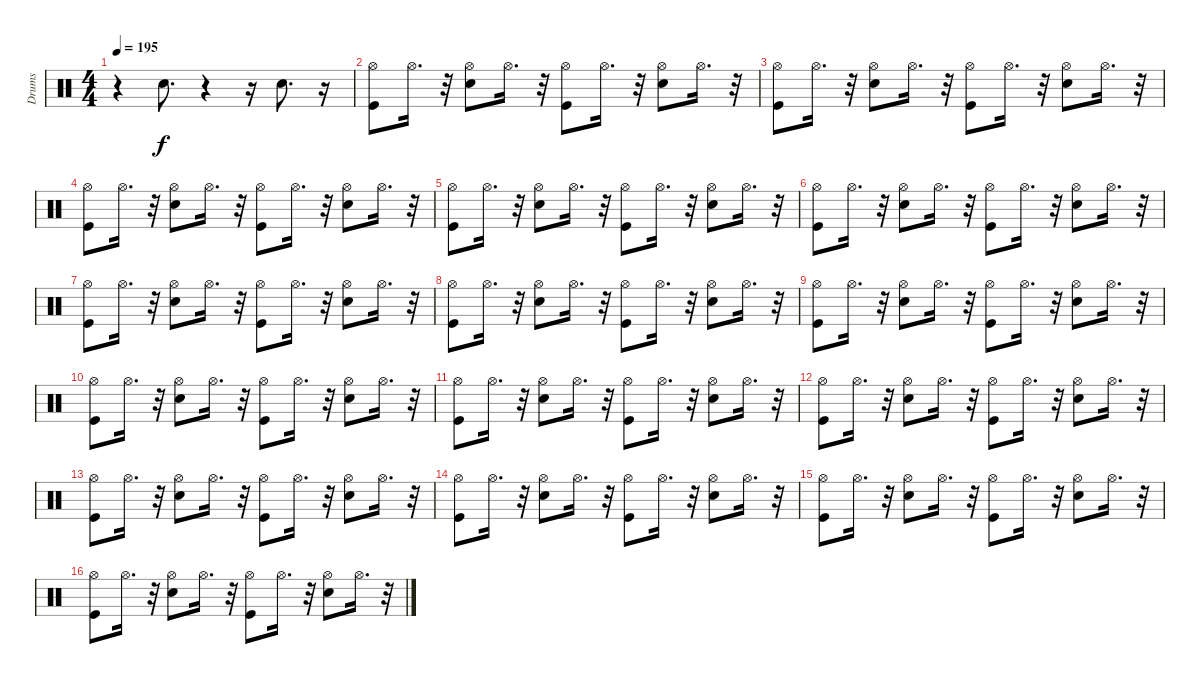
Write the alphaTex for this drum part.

\track ("Drums" "Drums") {instrument percussion}
\staff {score}
\articulation defaults
\ts (4 4)
\tempo 195
\clef neutral
\ks c
r.4{dy f} "Electric Snare (hit)".8{d} r.4 r.16 "Electric Snare (hit)".8{d} r.16 |
("Kick (hit)" "Hi-Hat (open)").8 "Hi-Hat (open)".16{d} r.32 ("Electric Snare (hit)" "Hi-Hat (open)").8 "Hi-Hat (open)".16{d} r.32 ("Kick (hit)" "Hi-Hat (open)").8 "Hi-Hat (open)".16{d} r.32 ("Electric Snare (hit)" "Hi-Hat (open)").8 "Hi-Hat (open)".16{d} r.32 |
("Kick (hit)" "Hi-Hat (open)").8 "Hi-Hat (open)".16{d} r.32 ("Electric Snare (hit)" "Hi-Hat (open)").8 "Hi-Hat (open)".16{d} r.32 ("Hi-Hat (open)" "Kick (hit)").8 "Hi-Hat (open)".16{d} r.32 ("Hi-Hat (open)" "Electric Snare (hit)").8 "Hi-Hat (open)".16{d} r.32 |
("Hi-Hat (open)" "Kick (hit)").8 "Hi-Hat (open)".16{d} r.32 ("Hi-Hat (open)" "Electric Snare (hit)").8 "Hi-Hat (open)".16{d} r.32 ("Kick (hit)" "Hi-Hat (open)").8 "Hi-Hat (open)".16{d} r.32 ("Electric Snare (hit)" "Hi-Hat (open)").8 "Hi-Hat (open)".16{d} r.32 |
("Kick (hit)" "Hi-Hat (open)").8 "Hi-Hat (open)".16{d} r.32 ("Electric Snare (hit)" "Hi-Hat (open)").8 "Hi-Hat (open)".16{d} r.32 ("Kick (hit)" "Hi-Hat (open)").8 "Hi-Hat (open)".16{d} r.32 ("Hi-Hat (open)" "Electric Snare (hit)").8 "Hi-Hat (open)".16{d} r.32 |
("Kick (hit)" "Hi-Hat (open)").8 "Hi-Hat (open)".16{d} r.32 ("Electric Snare (hit)" "Hi-Hat (open)").8 "Hi-Hat (open)".16{d} r.32 ("Hi-Hat (open)" "Kick (hit)").8 "Hi-Hat (open)".16{d} r.32 ("Electric Snare (hit)" "Hi-Hat (open)").8 "Hi-Hat (open)".16{d} r.32 |
("Kick (hit)" "Hi-Hat (open)").8 "Hi-Hat (open)".16{d} r.32 ("Electric Snare (hit)" "Hi-Hat (open)").8 "Hi-Hat (open)".16{d} r.32 ("Kick (hit)" "Hi-Hat (open)").8 "Hi-Hat (open)".16{d} r.32 ("Electric Snare (hit)" "Hi-Hat (open)").8 "Hi-Hat (open)".16{d} r.32 |
("Kick (hit)" "Hi-Hat (open)").8 "Hi-Hat (open)".16{d} r.32 ("Electric Snare (hit)" "Hi-Hat (open)").8 "Hi-Hat (open)".16{d} r.32 ("Kick (hit)" "Hi-Hat (open)").8 "Hi-Hat (open)".16{d} r.32 ("Hi-Hat (open)" "Electric Snare (hit)").8 "Hi-Hat (open)".16{d} r.32 |
("Hi-Hat (open)" "Kick (hit)").8 "Hi-Hat (open)".16{d} r.32 ("Hi-Hat (open)" "Electric Snare (hit)").8 "Hi-Hat (open)".16{d} r.32 ("Hi-Hat (open)" "Kick (hit)").8 "Hi-Hat (open)".16{d} r.32 ("Hi-Hat (open)" "Electric Snare (hit)").8 "Hi-Hat (open)".16{d} r.32 |
("Kick (hit)" "Hi-Hat (open)").8 "Hi-Hat (open)".16{d} r.32 ("Electric Snare (hit)" "Hi-Hat (open)").8 "Hi-Hat (open)".16{d} r.32 ("Hi-Hat (open)" "Kick (hit)").8 "Hi-Hat (open)".16{d} r.32 ("Hi-Hat (open)" "Electric Snare (hit)").8 "Hi-Hat (open)".16{d} r.32 |
("Hi-Hat (open)" "Kick (hit)").8 "Hi-Hat (open)".16{d} r.32 ("Electric Snare (hit)" "Hi-Hat (open)").8 "Hi-Hat (open)".16{d} r.32 ("Hi-Hat (open)" "Kick (hit)").8 "Hi-Hat (open)".16{d} r.32 ("Hi-Hat (open)" "Electric Snare (hit)").8 "Hi-Hat (open)".16{d} r.32 |
("Kick (hit)" "Hi-Hat (open)").8 "Hi-Hat (open)".16{d} r.32 ("Hi-Hat (open)" "Electric Snare (hit)").8 "Hi-Hat (open)".16{d} r.32 ("Hi-Hat (open)" "Kick (hit)").8 "Hi-Hat (open)".16{d} r.32 ("Hi-Hat (open)" "Electric Snare (hit)").8 "Hi-Hat (open)".16{d} r.32 |
("Hi-Hat (open)" "Kick (hit)").8 "Hi-Hat (open)".16{d} r.32 ("Electric Snare (hit)" "Hi-Hat (open)").8 "Hi-Hat (open)".16{d} r.32 ("Kick (hit)" "Hi-Hat (open)").8 "Hi-Hat (open)".16{d} r.32 ("Hi-Hat (open)" "Electric Snare (hit)").8 "Hi-Hat (open)".16{d} r.32 |
("Hi-Hat (open)" "Kick (hit)").8 "Hi-Hat (open)".16{d} r.32 ("Electric Snare (hit)" "Hi-Hat (open)").8 "Hi-Hat (open)".16{d} r.32 ("Kick (hit)" "Hi-Hat (open)").8 "Hi-Hat (open)".16{d} r.32 ("Hi-Hat (open)" "Electric Snare (hit)").8 "Hi-Hat (open)".16{d} r.32 |
("Hi-Hat (open)" "Kick (hit)").8 "Hi-Hat (open)".16{d} r.32 ("Hi-Hat (open)" "Electric Snare (hit)").8 "Hi-Hat (open)".16{d} r.32 ("Kick (hit)" "Hi-Hat (open)").8 "Hi-Hat (open)".16{d} r.32 ("Hi-Hat (open)" "Electric Snare (hit)").8 "Hi-Hat (open)".16{d} r.32 |
("Kick (hit)" "Hi-Hat (open)").8 "Hi-Hat (open)".16{d} r.32 ("Electric Snare (hit)" "Hi-Hat (open)").8 "Hi-Hat (open)".16{d} r.32 ("Kick (hit)" "Hi-Hat (open)").8 "Hi-Hat (open)".16{d} r.32 ("Hi-Hat (open)" "Electric Snare (hit)").8 "Hi-Hat (open)".16{d} r.32
